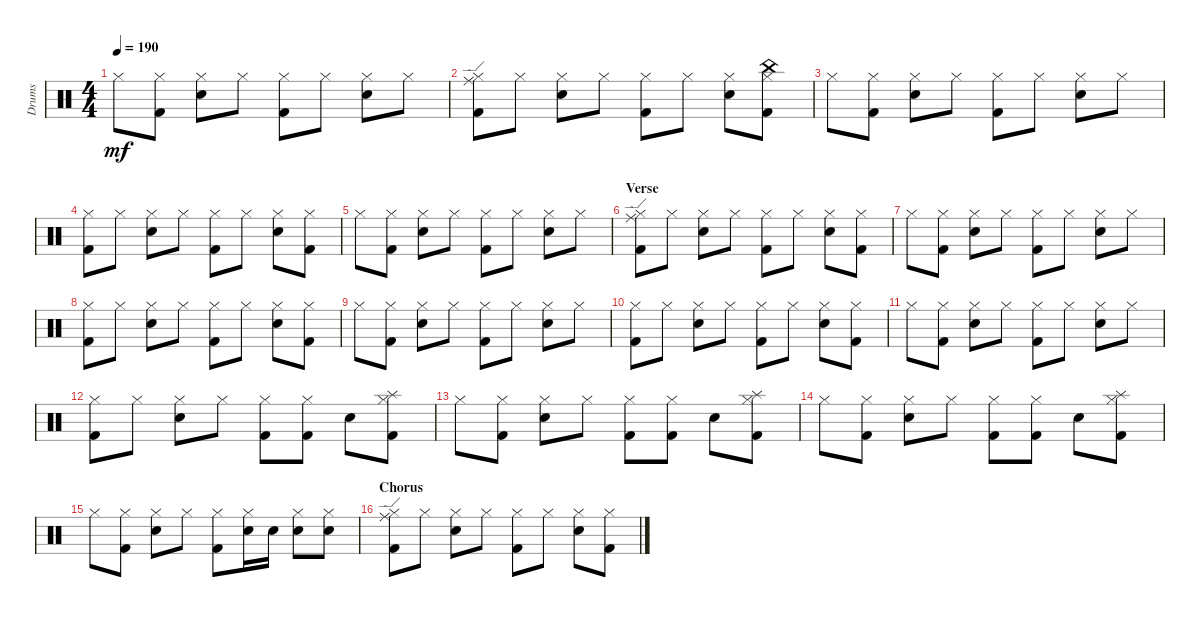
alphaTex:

\defaultSystemsLayout 4
\bracketExtendMode groupsimilarinstruments
\otherSystemsTrackNameOrientation horizontal
\track ("Prakarsh" "Drums") {instrument percussion}
\staff {score}
\articulation defaults
\ts (4 4)
\tempo 190
\clef neutral
\ks c "Hi-Hat (closed)".8{dy mf beam Down}
("Hi-Hat (closed)" "Kick (hit) 2").8{beam Down} ("Hi-Hat (closed)" "Snare (hit) 2").8{beam Down} "Hi-Hat (closed)".8{beam Down} ("Hi-Hat (closed)" "Kick (hit) 2").8{beam Down} "Hi-Hat (closed)".8{beam Down} ("Hi-Hat (closed)" "Snare (hit) 2").8{beam Down} "Hi-Hat (closed)".8{beam Down} |
("Kick (hit) 2" "Hi-Hat (closed)" "Ride (edge)").8{beam Down} "Hi-Hat (closed)".8{beam Down} ("Hi-Hat (closed)" "Snare (hit) 2").8{beam Down} "Hi-Hat (closed)".8{beam Down} ("Hi-Hat (closed)" "Kick (hit) 2").8{beam Down} "Hi-Hat (closed)".8{beam Down} ("Hi-Hat (closed)" "Snare (hit) 2").8{beam Down} ("Hi-Hat (closed)" "Kick (hit) 2" "China (hit)").8{beam Down} |
"Hi-Hat (closed)".8{beam Down} ("Hi-Hat (closed)" "Kick (hit) 2").8{beam Down} ("Hi-Hat (closed)" "Snare (hit) 2").8{beam Down} "Hi-Hat (closed)".8{beam Down} ("Hi-Hat (closed)" "Kick (hit) 2").8{beam Down} "Hi-Hat (closed)".8{beam Down} ("Hi-Hat (closed)" "Snare (hit) 2").8{beam Down} "Hi-Hat (closed)".8{beam Down} |
("Kick (hit) 2" "Hi-Hat (closed)").8{beam Down} "Hi-Hat (closed)".8{beam Down} ("Hi-Hat (closed)" "Snare (hit) 2").8{beam Down} "Hi-Hat (closed)".8{beam Down} ("Hi-Hat (closed)" "Kick (hit) 2").8{beam Down} "Hi-Hat (closed)".8{beam Down} ("Hi-Hat (closed)" "Snare (hit) 2").8{beam Down} ("Hi-Hat (closed)" "Kick (hit) 2").8{beam Down} |
"Hi-Hat (closed)".8{beam Down} ("Hi-Hat (closed)" "Kick (hit) 2").8{beam Down} ("Hi-Hat (closed)" "Snare (hit) 2").8{beam Down} "Hi-Hat (closed)".8{beam Down} ("Hi-Hat (closed)" "Kick (hit) 2").8{beam Down} "Hi-Hat (closed)".8{beam Down} ("Hi-Hat (closed)" "Snare (hit) 2").8{beam Down} "Hi-Hat (closed)".8{beam Down} |
\section ("" "Verse")
("Kick (hit) 2" "Hi-Hat (closed)" "Ride (edge)").8{beam Down} "Hi-Hat (closed)".8{beam Down} ("Hi-Hat (closed)" "Snare (hit) 2").8{beam Down} "Hi-Hat (closed)".8{beam Down} ("Hi-Hat (closed)" "Kick (hit) 2").8{beam Down} "Hi-Hat (closed)".8{beam Down} ("Hi-Hat (closed)" "Snare (hit) 2").8{beam Down} ("Hi-Hat (closed)" "Kick (hit) 2").8{beam Down} |
"Hi-Hat (closed)".8{beam Down} ("Hi-Hat (closed)" "Kick (hit) 2").8{beam Down} ("Hi-Hat (closed)" "Snare (hit) 2").8{beam Down} "Hi-Hat (closed)".8{beam Down} ("Hi-Hat (closed)" "Kick (hit) 2").8{beam Down} "Hi-Hat (closed)".8{beam Down} ("Hi-Hat (closed)" "Snare (hit) 2").8{beam Down} "Hi-Hat (closed)".8{beam Down} |
("Kick (hit) 2" "Hi-Hat (closed)").8{beam Down} "Hi-Hat (closed)".8{beam Down} ("Hi-Hat (closed)" "Snare (hit) 2").8{beam Down} "Hi-Hat (closed)".8{beam Down} ("Hi-Hat (closed)" "Kick (hit) 2").8{beam Down} "Hi-Hat (closed)".8{beam Down} ("Hi-Hat (closed)" "Snare (hit) 2").8{beam Down} ("Hi-Hat (closed)" "Kick (hit) 2").8{beam Down} |
"Hi-Hat (closed)".8{beam Down} ("Hi-Hat (closed)" "Kick (hit) 2").8{beam Down} ("Hi-Hat (closed)" "Snare (hit) 2").8{beam Down} "Hi-Hat (closed)".8{beam Down} ("Hi-Hat (closed)" "Kick (hit) 2").8{beam Down} "Hi-Hat (closed)".8{beam Down} ("Hi-Hat (closed)" "Snare (hit) 2").8{beam Down} "Hi-Hat (closed)".8{beam Down} |
("Kick (hit) 2" "Hi-Hat (closed)").8{beam Down} "Hi-Hat (closed)".8{beam Down} ("Hi-Hat (closed)" "Snare (hit) 2").8{beam Down} "Hi-Hat (closed)".8{beam Down} ("Hi-Hat (closed)" "Kick (hit) 2").8{beam Down} "Hi-Hat (closed)".8{beam Down} ("Hi-Hat (closed)" "Snare (hit) 2").8{beam Down} ("Hi-Hat (closed)" "Kick (hit) 2").8{beam Down} |
"Hi-Hat (closed)".8{beam Down} ("Hi-Hat (closed)" "Kick (hit) 2").8{beam Down} ("Hi-Hat (closed)" "Snare (hit) 2").8{beam Down} "Hi-Hat (closed)".8{beam Down} ("Hi-Hat (closed)" "Kick (hit) 2").8{beam Down} "Hi-Hat (closed)".8{beam Down} ("Hi-Hat (closed)" "Snare (hit) 2").8{beam Down} "Hi-Hat (closed)".8{beam Down} |
("Kick (hit) 2" "Hi-Hat (closed)").8{beam Down} "Hi-Hat (closed)".8{beam Down} ("Hi-Hat (closed)" "Snare (hit) 2").8{beam Down} "Hi-Hat (closed)".8{beam Down} ("Hi-Hat (closed)" "Kick (hit) 2").8{beam Down} ("Hi-Hat (closed)" "Kick (hit) 2").8{beam Down} "Snare (hit) 2".8{beam Down} ("Hi-Hat (closed)" "Kick (hit) 2" "Splash (hit)").8{beam Down} |
"Hi-Hat (closed)".8{beam Down} ("Hi-Hat (closed)" "Kick (hit) 2").8{beam Down} ("Hi-Hat (closed)" "Snare (hit) 2").8{beam Down} "Hi-Hat (closed)".8{beam Down} ("Hi-Hat (closed)" "Kick (hit) 2").8{beam Down} ("Hi-Hat (closed)" "Kick (hit) 2").8{beam Down} "Snare (hit) 2".8{beam Down} ("Hi-Hat (closed)" "Kick (hit) 2" "Splash (hit)").8{beam Down} |
"Hi-Hat (closed)".8{beam Down} ("Hi-Hat (closed)" "Kick (hit) 2").8{beam Down} ("Hi-Hat (closed)" "Snare (hit) 2").8{beam Down} "Hi-Hat (closed)".8{beam Down} ("Hi-Hat (closed)" "Kick (hit) 2").8{beam Down} ("Hi-Hat (closed)" "Kick (hit) 2").8{beam Down} "Snare (hit) 2".8{beam Down} ("Hi-Hat (closed)" "Kick (hit) 2" "Splash (hit)").8{beam Down} |
"Hi-Hat (closed)".8{beam Down} ("Hi-Hat (closed)" "Kick (hit) 2").8{beam Down} ("Hi-Hat (closed)" "Snare (hit) 2").8{beam Down} "Hi-Hat (closed)".8{beam Down} ("Hi-Hat (closed)" "Kick (hit) 2").8{beam Down} ("Hi-Hat (closed)" "Snare (hit) 2").16{beam Down} "Snare (hit) 2".16{beam Down} ("Hi-Hat (closed)" "Snare (hit) 2").8{beam Down} ("Hi-Hat (closed)" "Snare (hit) 2").8{beam Down} |
\section ("" "Chorus")
("Kick (hit) 2" "Hi-Hat (closed)" "Ride (edge)").8{beam Down} "Hi-Hat (closed)".8{beam Down} ("Hi-Hat (closed)" "Snare (hit) 2").8{beam Down} "Hi-Hat (closed)".8{beam Down} ("Hi-Hat (closed)" "Kick (hit) 2").8{beam Down} "Hi-Hat (closed)".8{beam Down} ("Hi-Hat (closed)" "Snare (hit) 2").8{beam Down} ("Hi-Hat (closed)" "Kick (hit) 2").8{beam Down}
